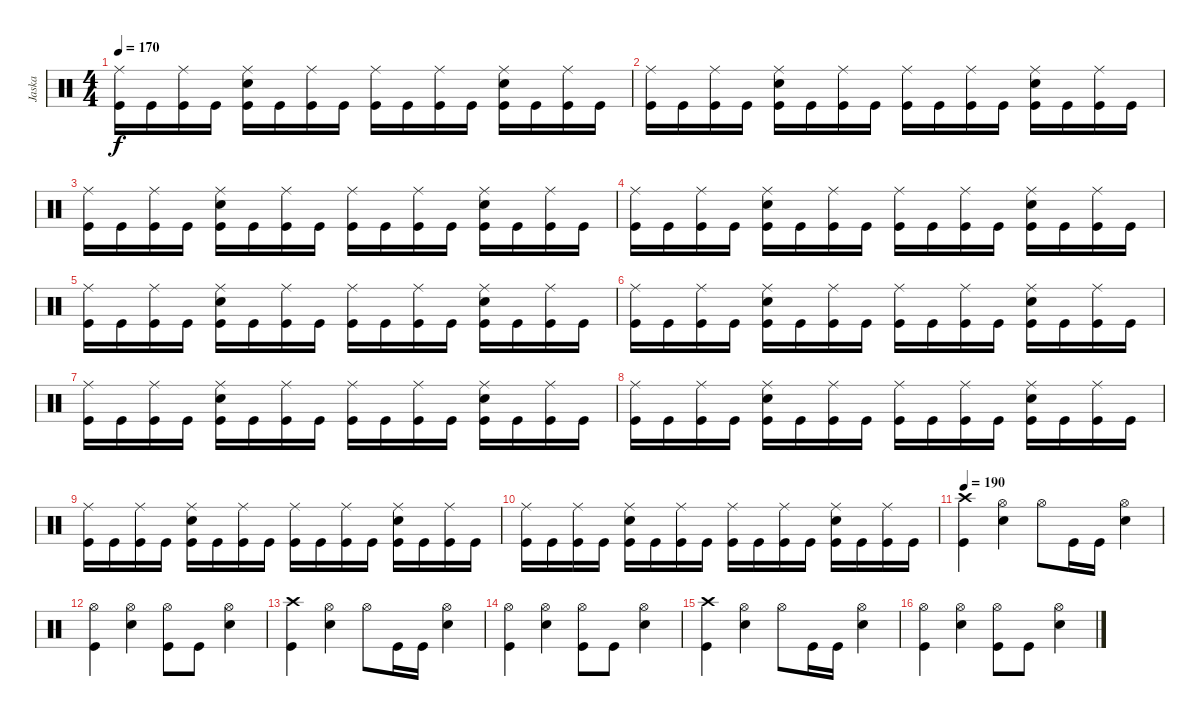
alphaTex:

\track ("Jaska" "Jaska") {instrument percussion}
\staff {score}
\articulation defaults
\ts (4 4)
\tempo 170
\clef neutral
\ks c
("Ride (middle)" "Kick (hit)").16{dy f} "Kick (hit)".16 ("Ride (middle)" "Kick (hit)").16 "Kick (hit)".16 ("Ride (middle)" "Snare (hit) 2" "Kick (hit)").16 "Kick (hit)".16 ("Ride (middle)" "Kick (hit)").16 "Kick (hit)".16 ("Ride (middle)" "Kick (hit)").16 "Kick (hit)".16 ("Ride (middle)" "Kick (hit)").16 "Kick (hit)".16 ("Ride (middle)" "Snare (hit) 2" "Kick (hit)").16 "Kick (hit)".16 ("Ride (middle)" "Kick (hit)").16 "Kick (hit)".16 |
("Ride (middle)" "Kick (hit)").16 "Kick (hit)".16 ("Ride (middle)" "Kick (hit)").16 "Kick (hit)".16 ("Ride (middle)" "Snare (hit) 2" "Kick (hit)").16 "Kick (hit)".16 ("Ride (middle)" "Kick (hit)").16 "Kick (hit)".16 ("Ride (middle)" "Kick (hit)").16 "Kick (hit)".16 ("Ride (middle)" "Kick (hit)").16 "Kick (hit)".16 ("Ride (middle)" "Snare (hit) 2" "Kick (hit)").16 "Kick (hit)".16 ("Ride (middle)" "Kick (hit)").16 "Kick (hit)".16 |
("Ride (middle)" "Kick (hit)").16 "Kick (hit)".16 ("Ride (middle)" "Kick (hit)").16 "Kick (hit)".16 ("Ride (middle)" "Snare (hit) 2" "Kick (hit)").16 "Kick (hit)".16 ("Ride (middle)" "Kick (hit)").16 "Kick (hit)".16 ("Ride (middle)" "Kick (hit)").16 "Kick (hit)".16 ("Ride (middle)" "Kick (hit)").16 "Kick (hit)".16 ("Ride (middle)" "Snare (hit) 2" "Kick (hit)").16 "Kick (hit)".16 ("Ride (middle)" "Kick (hit)").16 "Kick (hit)".16 |
("Ride (middle)" "Kick (hit)").16 "Kick (hit)".16 ("Ride (middle)" "Kick (hit)").16 "Kick (hit)".16 ("Ride (middle)" "Snare (hit) 2" "Kick (hit)").16 "Kick (hit)".16 ("Ride (middle)" "Kick (hit)").16 "Kick (hit)".16 ("Ride (middle)" "Kick (hit)").16 "Kick (hit)".16 ("Ride (middle)" "Kick (hit)").16 "Kick (hit)".16 ("Ride (middle)" "Snare (hit) 2" "Kick (hit)").16 "Kick (hit)".16 ("Ride (middle)" "Kick (hit)").16 "Kick (hit)".16 |
("Ride (middle)" "Kick (hit)").16 "Kick (hit)".16 ("Ride (middle)" "Kick (hit)").16 "Kick (hit)".16 ("Ride (middle)" "Snare (hit) 2" "Kick (hit)").16 "Kick (hit)".16 ("Ride (middle)" "Kick (hit)").16 "Kick (hit)".16 ("Ride (middle)" "Kick (hit)").16 "Kick (hit)".16 ("Ride (middle)" "Kick (hit)").16 "Kick (hit)".16 ("Ride (middle)" "Snare (hit) 2" "Kick (hit)").16 "Kick (hit)".16 ("Ride (middle)" "Kick (hit)").16 "Kick (hit)".16 |
("Ride (middle)" "Kick (hit)").16 "Kick (hit)".16 ("Ride (middle)" "Kick (hit)").16 "Kick (hit)".16 ("Ride (middle)" "Snare (hit) 2" "Kick (hit)").16 "Kick (hit)".16 ("Ride (middle)" "Kick (hit)").16 "Kick (hit)".16 ("Ride (middle)" "Kick (hit)").16 "Kick (hit)".16 ("Ride (middle)" "Kick (hit)").16 "Kick (hit)".16 ("Ride (middle)" "Snare (hit) 2" "Kick (hit)").16 "Kick (hit)".16 ("Ride (middle)" "Kick (hit)").16 "Kick (hit)".16 |
("Ride (middle)" "Kick (hit)").16 "Kick (hit)".16 ("Ride (middle)" "Kick (hit)").16 "Kick (hit)".16 ("Ride (middle)" "Snare (hit) 2" "Kick (hit)").16 "Kick (hit)".16 ("Ride (middle)" "Kick (hit)").16 "Kick (hit)".16 ("Ride (middle)" "Kick (hit)").16 "Kick (hit)".16 ("Ride (middle)" "Kick (hit)").16 "Kick (hit)".16 ("Ride (middle)" "Snare (hit) 2" "Kick (hit)").16 "Kick (hit)".16 ("Ride (middle)" "Kick (hit)").16 "Kick (hit)".16 |
("Ride (middle)" "Kick (hit)").16 "Kick (hit)".16 ("Ride (middle)" "Kick (hit)").16 "Kick (hit)".16 ("Ride (middle)" "Snare (hit) 2" "Kick (hit)").16 "Kick (hit)".16 ("Ride (middle)" "Kick (hit)").16 "Kick (hit)".16 ("Ride (middle)" "Kick (hit)").16 "Kick (hit)".16 ("Ride (middle)" "Kick (hit)").16 "Kick (hit)".16 ("Ride (middle)" "Snare (hit) 2" "Kick (hit)").16 "Kick (hit)".16 ("Ride (middle)" "Kick (hit)").16 "Kick (hit)".16 |
("Ride (middle)" "Kick (hit)").16 "Kick (hit)".16 ("Ride (middle)" "Kick (hit)").16 "Kick (hit)".16 ("Ride (middle)" "Snare (hit) 2" "Kick (hit)").16 "Kick (hit)".16 ("Ride (middle)" "Kick (hit)").16 "Kick (hit)".16 ("Ride (middle)" "Kick (hit)").16 "Kick (hit)".16 ("Ride (middle)" "Kick (hit)").16 "Kick (hit)".16 ("Ride (middle)" "Snare (hit) 2" "Kick (hit)").16 "Kick (hit)".16 ("Ride (middle)" "Kick (hit)").16 "Kick (hit)".16 |
("Ride (middle)" "Kick (hit)").16 "Kick (hit)".16 ("Ride (middle)" "Kick (hit)").16 "Kick (hit)".16 ("Ride (middle)" "Snare (hit) 2" "Kick (hit)").16 "Kick (hit)".16 ("Ride (middle)" "Kick (hit)").16 "Kick (hit)".16 ("Ride (middle)" "Kick (hit)").16 "Kick (hit)".16 ("Ride (middle)" "Kick (hit)").16 "Kick (hit)".16 ("Ride (middle)" "Snare (hit) 2" "Kick (hit)").16 "Kick (hit)".16 ("Ride (middle)" "Kick (hit)").16 "Kick (hit)".16 |
\tempo 190
("Crash high (hit)" "Kick (hit)").4 ("Hi-Hat (open)" "Snare (hit) 2").4 "Hi-Hat (open)".8 "Kick (hit)".16 "Kick (hit)".16 ("Hi-Hat (open)" "Snare (hit) 2").4 |
("Hi-Hat (open)" "Kick (hit)").4 ("Hi-Hat (open)" "Snare (hit) 2").4 ("Hi-Hat (open)" "Kick (hit)").8 "Kick (hit)".8 ("Hi-Hat (open)" "Snare (hit) 2").4 |
("Crash high (hit)" "Kick (hit)").4 ("Hi-Hat (open)" "Snare (hit) 2").4 "Hi-Hat (open)".8 "Kick (hit)".16 "Kick (hit)".16 ("Hi-Hat (open)" "Snare (hit) 2").4 |
("Hi-Hat (open)" "Kick (hit)").4 ("Hi-Hat (open)" "Snare (hit) 2").4 ("Hi-Hat (open)" "Kick (hit)").8 "Kick (hit)".8 ("Hi-Hat (open)" "Snare (hit) 2").4 |
("Crash high (hit)" "Kick (hit)").4 ("Hi-Hat (open)" "Snare (hit) 2").4 "Hi-Hat (open)".8 "Kick (hit)".16 "Kick (hit)".16 ("Hi-Hat (open)" "Snare (hit) 2").4 |
("Hi-Hat (open)" "Kick (hit)").4 ("Hi-Hat (open)" "Snare (hit) 2").4 ("Hi-Hat (open)" "Kick (hit)").8 "Kick (hit)".8 ("Hi-Hat (open)" "Snare (hit) 2").4
